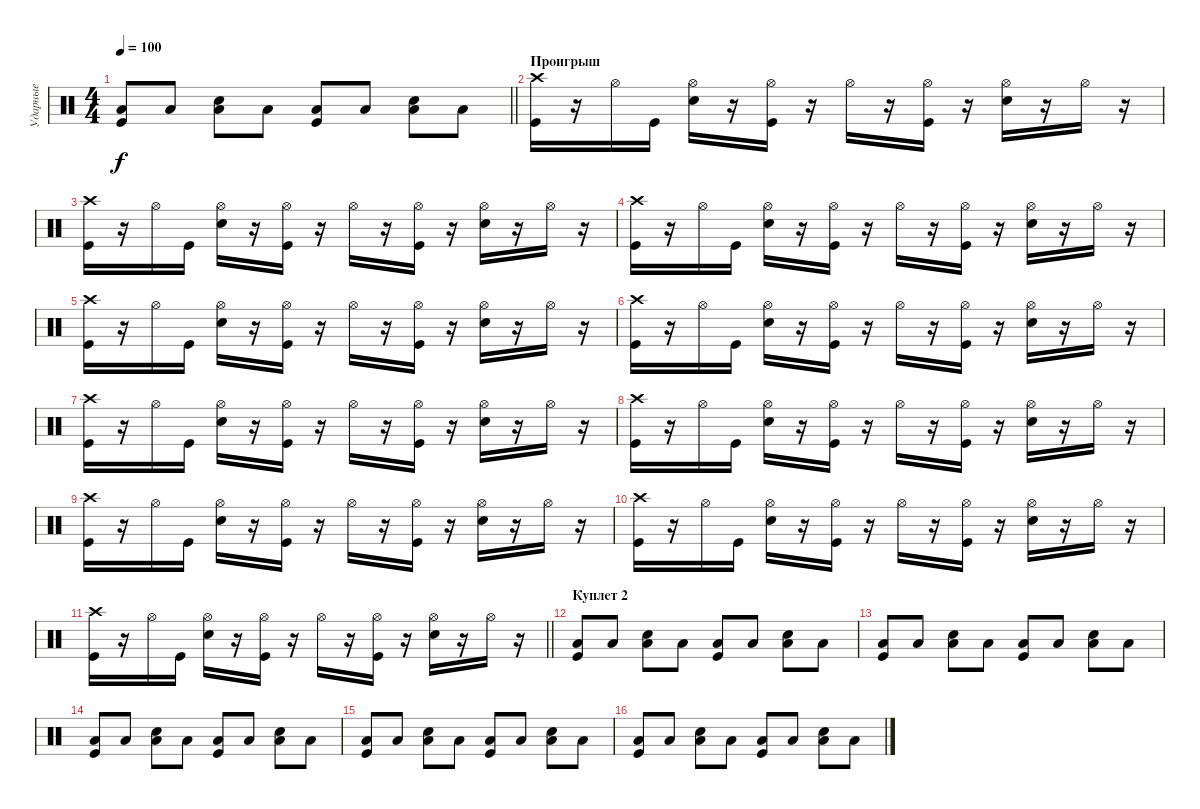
\track ("Ударные" "Ударные") {instrument percussion}
\staff {score}
\articulation defaults
\ts (4 4)
\tempo 100
\clef neutral
\barLineRight lightlight
\ks c
("Low Tom (hit)" "Kick (hit)").8{dy f} "Low Tom (hit)".8 ("Snare (hit) 2" "Low Tom (hit)").8 "Low Tom (hit)".8 ("Low Tom (hit)" "Kick (hit)").8 "Low Tom (hit)".8 ("Snare (hit) 2" "Low Tom (hit)").8 "Low Tom (hit)".8 |
\section ("" "Проигрыш")
("Crash high (hit)" "Kick (hit)").16 r.16 "Hi-Hat (open)".16 "Kick (hit)".16 ("Electric Snare (hit)" "Hi-Hat (open)").16 r.16 ("Kick (hit)" "Hi-Hat (open)").16 r.16 "Hi-Hat (open)".16 r.16 ("Hi-Hat (open)" "Kick (hit)").16 r.16 ("Hi-Hat (open)" "Electric Snare (hit)").16 r.16 "Hi-Hat (open)".16 r.16 |
("Crash high (hit)" "Kick (hit)").16 r.16 "Hi-Hat (open)".16 "Kick (hit)".16 ("Electric Snare (hit)" "Hi-Hat (open)").16 r.16 ("Kick (hit)" "Hi-Hat (open)").16 r.16 "Hi-Hat (open)".16 r.16 ("Hi-Hat (open)" "Kick (hit)").16 r.16 ("Hi-Hat (open)" "Electric Snare (hit)").16 r.16 "Hi-Hat (open)".16 r.16 |
("Crash high (hit)" "Kick (hit)").16 r.16 "Hi-Hat (open)".16 "Kick (hit)".16 ("Electric Snare (hit)" "Hi-Hat (open)").16 r.16 ("Kick (hit)" "Hi-Hat (open)").16 r.16 "Hi-Hat (open)".16 r.16 ("Hi-Hat (open)" "Kick (hit)").16 r.16 ("Hi-Hat (open)" "Electric Snare (hit)").16 r.16 "Hi-Hat (open)".16 r.16 |
("Crash high (hit)" "Kick (hit)").16 r.16 "Hi-Hat (open)".16 "Kick (hit)".16 ("Electric Snare (hit)" "Hi-Hat (open)").16 r.16 ("Kick (hit)" "Hi-Hat (open)").16 r.16 "Hi-Hat (open)".16 r.16 ("Hi-Hat (open)" "Kick (hit)").16 r.16 ("Hi-Hat (open)" "Electric Snare (hit)").16 r.16 "Hi-Hat (open)".16 r.16 |
("Crash high (hit)" "Kick (hit)").16 r.16 "Hi-Hat (open)".16 "Kick (hit)".16 ("Electric Snare (hit)" "Hi-Hat (open)").16 r.16 ("Kick (hit)" "Hi-Hat (open)").16 r.16 "Hi-Hat (open)".16 r.16 ("Hi-Hat (open)" "Kick (hit)").16 r.16 ("Hi-Hat (open)" "Electric Snare (hit)").16 r.16 "Hi-Hat (open)".16 r.16 |
("Crash high (hit)" "Kick (hit)").16 r.16 "Hi-Hat (open)".16 "Kick (hit)".16 ("Electric Snare (hit)" "Hi-Hat (open)").16 r.16 ("Kick (hit)" "Hi-Hat (open)").16 r.16 "Hi-Hat (open)".16 r.16 ("Hi-Hat (open)" "Kick (hit)").16 r.16 ("Hi-Hat (open)" "Electric Snare (hit)").16 r.16 "Hi-Hat (open)".16 r.16 |
("Crash high (hit)" "Kick (hit)").16 r.16 "Hi-Hat (open)".16 "Kick (hit)".16 ("Electric Snare (hit)" "Hi-Hat (open)").16 r.16 ("Kick (hit)" "Hi-Hat (open)").16 r.16 "Hi-Hat (open)".16 r.16 ("Hi-Hat (open)" "Kick (hit)").16 r.16 ("Hi-Hat (open)" "Electric Snare (hit)").16 r.16 "Hi-Hat (open)".16 r.16 |
("Crash high (hit)" "Kick (hit)").16 r.16 "Hi-Hat (open)".16 "Kick (hit)".16 ("Electric Snare (hit)" "Hi-Hat (open)").16 r.16 ("Kick (hit)" "Hi-Hat (open)").16 r.16 "Hi-Hat (open)".16 r.16 ("Hi-Hat (open)" "Kick (hit)").16 r.16 ("Hi-Hat (open)" "Electric Snare (hit)").16 r.16 "Hi-Hat (open)".16 r.16 |
("Crash high (hit)" "Kick (hit)").16 r.16 "Hi-Hat (open)".16 "Kick (hit)".16 ("Electric Snare (hit)" "Hi-Hat (open)").16 r.16 ("Kick (hit)" "Hi-Hat (open)").16 r.16 "Hi-Hat (open)".16 r.16 ("Hi-Hat (open)" "Kick (hit)").16 r.16 ("Hi-Hat (open)" "Electric Snare (hit)").16 r.16 "Hi-Hat (open)".16 r.16 |
\barLineRight lightlight
("Crash high (hit)" "Kick (hit)").16 r.16 "Hi-Hat (open)".16 "Kick (hit)".16 ("Electric Snare (hit)" "Hi-Hat (open)").16 r.16 ("Kick (hit)" "Hi-Hat (open)").16 r.16 "Hi-Hat (open)".16 r.16 ("Hi-Hat (open)" "Kick (hit)").16 r.16 ("Hi-Hat (open)" "Electric Snare (hit)").16 r.16 "Hi-Hat (open)".16 r.16 |
\section ("" "Куплет 2")
("Low Tom (hit)" "Kick (hit)").8 "Low Tom (hit)".8 ("Snare (hit) 2" "Low Tom (hit)").8 "Low Tom (hit)".8 ("Low Tom (hit)" "Kick (hit)").8 "Low Tom (hit)".8 ("Snare (hit) 2" "Low Tom (hit)").8 "Low Tom (hit)".8 |
("Low Tom (hit)" "Kick (hit)").8 "Low Tom (hit)".8 ("Snare (hit) 2" "Low Tom (hit)").8 "Low Tom (hit)".8 ("Low Tom (hit)" "Kick (hit)").8 "Low Tom (hit)".8 ("Snare (hit) 2" "Low Tom (hit)").8 "Low Tom (hit)".8 |
("Low Tom (hit)" "Kick (hit)").8 "Low Tom (hit)".8 ("Snare (hit) 2" "Low Tom (hit)").8 "Low Tom (hit)".8 ("Low Tom (hit)" "Kick (hit)").8 "Low Tom (hit)".8 ("Snare (hit) 2" "Low Tom (hit)").8 "Low Tom (hit)".8 |
("Low Tom (hit)" "Kick (hit)").8 "Low Tom (hit)".8 ("Snare (hit) 2" "Low Tom (hit)").8 "Low Tom (hit)".8 ("Low Tom (hit)" "Kick (hit)").8 "Low Tom (hit)".8 ("Snare (hit) 2" "Low Tom (hit)").8 "Low Tom (hit)".8 |
("Low Tom (hit)" "Kick (hit)").8 "Low Tom (hit)".8 ("Snare (hit) 2" "Low Tom (hit)").8 "Low Tom (hit)".8 ("Low Tom (hit)" "Kick (hit)").8 "Low Tom (hit)".8 ("Snare (hit) 2" "Low Tom (hit)").8 "Low Tom (hit)".8
